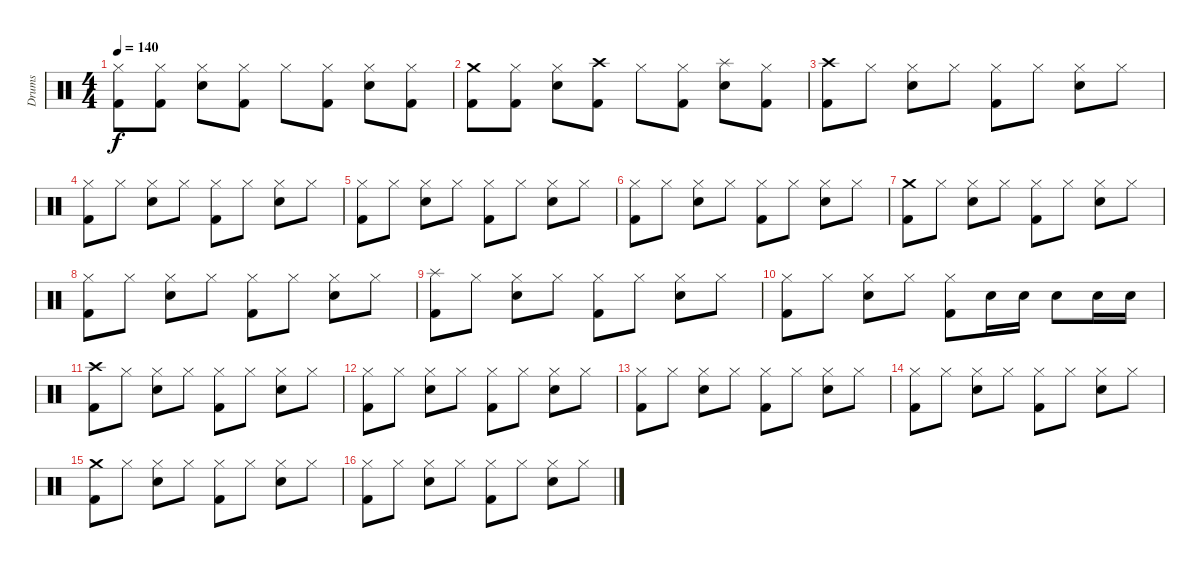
\track ("Drums" "Drums") {instrument percussion}
\staff {score}
\articulation defaults
\ts (4 4)
\tempo 140
\clef neutral
\ks c
("Hi-Hat (closed)" "Kick (hit) 2").8{dy f} ("Hi-Hat (closed)" "Kick (hit) 2").8 ("Hi-Hat (closed)" "Electric Snare (hit)").8 ("Hi-Hat (closed)" "Kick (hit) 2").8 "Hi-Hat (closed)".8 ("Hi-Hat (closed)" "Kick (hit) 2").8 ("Hi-Hat (closed)" "Electric Snare (hit)").8 ("Hi-Hat (closed)" "Kick (hit) 2").8 |
("Crash medium (hit)" "Kick (hit) 2").8 ("Hi-Hat (closed)" "Kick (hit) 2").8 ("Hi-Hat (closed)" "Electric Snare (hit)").8 ("Crash high (hit)" "Kick (hit) 2").8 "Hi-Hat (closed)".8 ("Hi-Hat (closed)" "Kick (hit) 2").8 ("Splash (hit)" "Electric Snare (hit)").8 ("Hi-Hat (closed)" "Kick (hit) 2").8 |
("Crash high (hit)" "Kick (hit) 2").8 "Hi-Hat (closed)".8 ("Hi-Hat (closed)" "Electric Snare (hit)").8 "Hi-Hat (closed)".8 ("Hi-Hat (closed)" "Kick (hit) 2").8 "Hi-Hat (closed)".8 ("Hi-Hat (closed)" "Electric Snare (hit)").8 "Hi-Hat (closed)".8 |
("Hi-Hat (closed)" "Kick (hit) 2").8 "Hi-Hat (closed)".8 ("Hi-Hat (closed)" "Electric Snare (hit)").8 "Hi-Hat (closed)".8 ("Hi-Hat (closed)" "Kick (hit) 2").8 "Hi-Hat (closed)".8 ("Hi-Hat (closed)" "Electric Snare (hit)").8 "Hi-Hat (closed)".8 |
("Hi-Hat (closed)" "Kick (hit) 2").8 "Hi-Hat (closed)".8 ("Hi-Hat (closed)" "Electric Snare (hit)").8 "Hi-Hat (closed)".8 ("Hi-Hat (closed)" "Kick (hit) 2").8 "Hi-Hat (closed)".8 ("Hi-Hat (closed)" "Electric Snare (hit)").8 "Hi-Hat (closed)".8 |
("Hi-Hat (closed)" "Kick (hit) 2").8 "Hi-Hat (closed)".8 ("Hi-Hat (closed)" "Electric Snare (hit)").8 "Hi-Hat (closed)".8 ("Hi-Hat (closed)" "Kick (hit) 2").8 "Hi-Hat (closed)".8 ("Hi-Hat (closed)" "Electric Snare (hit)").8 "Hi-Hat (closed)".8 |
("Crash medium (hit)" "Kick (hit) 2").8 "Hi-Hat (closed)".8 ("Hi-Hat (closed)" "Electric Snare (hit)").8 "Hi-Hat (closed)".8 ("Hi-Hat (closed)" "Kick (hit) 2").8 "Hi-Hat (closed)".8 ("Hi-Hat (closed)" "Electric Snare (hit)").8 "Hi-Hat (closed)".8 |
("Hi-Hat (closed)" "Kick (hit) 2").8 "Hi-Hat (closed)".8 ("Hi-Hat (closed)" "Electric Snare (hit)").8 "Hi-Hat (closed)".8 ("Hi-Hat (closed)" "Kick (hit) 2").8 "Hi-Hat (closed)".8 ("Hi-Hat (closed)" "Electric Snare (hit)").8 "Hi-Hat (closed)".8 |
("Splash (hit)" "Kick (hit) 2").8 "Hi-Hat (closed)".8 ("Hi-Hat (closed)" "Electric Snare (hit)").8 "Hi-Hat (closed)".8 ("Hi-Hat (closed)" "Kick (hit) 2").8 "Hi-Hat (closed)".8 ("Hi-Hat (closed)" "Electric Snare (hit)").8 "Hi-Hat (closed)".8 |
("Hi-Hat (closed)" "Kick (hit) 2").8 "Hi-Hat (closed)".8 ("Hi-Hat (closed)" "Electric Snare (hit)").8 "Hi-Hat (closed)".8 ("Hi-Hat (closed)" "Kick (hit) 2").8 "Electric Snare (hit)".16 "Electric Snare (hit)".16 "Electric Snare (hit)".8 "Electric Snare (hit)".16 "Electric Snare (hit)".16 |
("Crash high (hit)" "Kick (hit) 2").8 "Hi-Hat (closed)".8 ("Hi-Hat (closed)" "Electric Snare (hit)").8 "Hi-Hat (closed)".8 ("Hi-Hat (closed)" "Kick (hit) 2").8 "Hi-Hat (closed)".8 ("Hi-Hat (closed)" "Electric Snare (hit)").8 "Hi-Hat (closed)".8 |
("Hi-Hat (closed)" "Kick (hit) 2").8 "Hi-Hat (closed)".8 ("Hi-Hat (closed)" "Electric Snare (hit)").8 "Hi-Hat (closed)".8 ("Hi-Hat (closed)" "Kick (hit) 2").8 "Hi-Hat (closed)".8 ("Hi-Hat (closed)" "Electric Snare (hit)").8 "Hi-Hat (closed)".8 |
("Hi-Hat (closed)" "Kick (hit) 2").8 "Hi-Hat (closed)".8 ("Hi-Hat (closed)" "Electric Snare (hit)").8 "Hi-Hat (closed)".8 ("Hi-Hat (closed)" "Kick (hit) 2").8 "Hi-Hat (closed)".8 ("Hi-Hat (closed)" "Electric Snare (hit)").8 "Hi-Hat (closed)".8 |
("Hi-Hat (closed)" "Kick (hit) 2").8 "Hi-Hat (closed)".8 ("Hi-Hat (closed)" "Electric Snare (hit)").8 "Hi-Hat (closed)".8 ("Hi-Hat (closed)" "Kick (hit) 2").8 "Hi-Hat (closed)".8 ("Hi-Hat (closed)" "Electric Snare (hit)").8 "Hi-Hat (closed)".8 |
("Crash medium (hit)" "Kick (hit) 2").8 "Hi-Hat (closed)".8 ("Hi-Hat (closed)" "Electric Snare (hit)").8 "Hi-Hat (closed)".8 ("Hi-Hat (closed)" "Kick (hit) 2").8 "Hi-Hat (closed)".8 ("Hi-Hat (closed)" "Electric Snare (hit)").8 "Hi-Hat (closed)".8 |
("Hi-Hat (closed)" "Kick (hit) 2").8 "Hi-Hat (closed)".8 ("Hi-Hat (closed)" "Electric Snare (hit)").8 "Hi-Hat (closed)".8 ("Hi-Hat (closed)" "Kick (hit) 2").8 "Hi-Hat (closed)".8 ("Hi-Hat (closed)" "Electric Snare (hit)").8 "Hi-Hat (closed)".8
